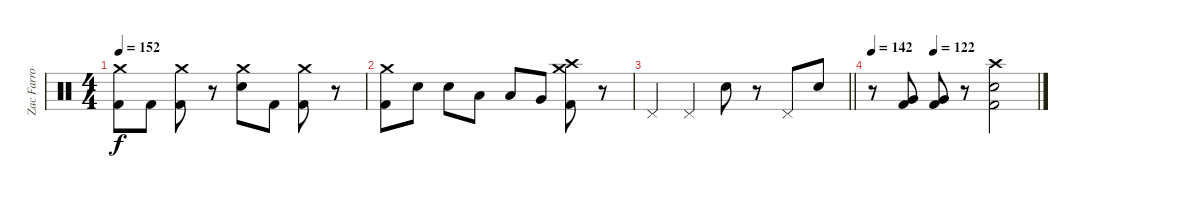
\track ("Zac Farro - Drums" "Zac Farro ") {instrument percussion}
\staff {score}
\articulation defaults
\ts (4 4)
\tempo 152
\clef neutral
\ks c
("Crash medium (hit)" "Kick (hit) 2").8{dy f} "Kick (hit) 2".8 ("Crash medium (hit)" "Kick (hit) 2").8 r.8 ("Crash medium (hit)" "Electric Snare (hit)").8 "Kick (hit) 2".8 ("Crash medium (hit)" "Kick (hit) 2").8 r.8 |
("Crash medium (hit)" "Kick (hit) 2").8 "Electric Snare (hit)".8 "Electric Snare (hit)".8 "Low Tom (hit)".8 "Low Tom (hit)".8 "Very Low Tom (hit)".8 ("Crash high (hit)" "Crash medium (hit)" "Kick (hit) 2").8 r.8 |
\barLineRight lightlight "Pedal Hi-Hat (hit)".4 "Pedal Hi-Hat (hit)".4 "Electric Snare (hit)".8
r.8 "Pedal Hi-Hat (hit)".8 "Electric Snare (hit)".8 |
\tempo 142
\tempo (122 0.375)
r.8 ("Very Low Tom (hit)" "Kick (hit) 2").8 ("Very Low Tom (hit)" "Kick (hit) 2").8 r.8 ("Crash high (hit)" "Electric Snare (hit)" "Kick (hit) 2").2
